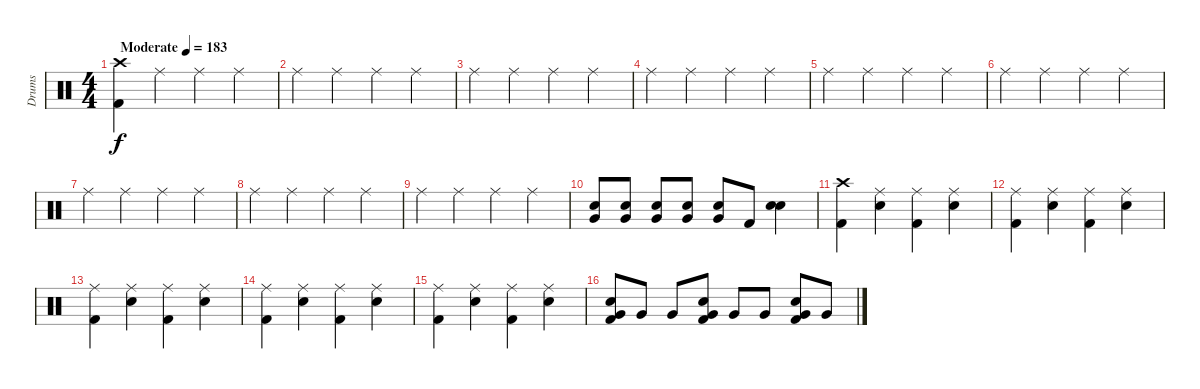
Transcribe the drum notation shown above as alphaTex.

\track ("Drums" "Drums") {instrument percussion}
\staff {score}
\articulation defaults
\ts (4 4)
\tempo (183 "Moderate")
\clef neutral
\ks c
("Crash high (hit)" "Kick (hit) 2").4{dy f} "Ride (middle)".4 "Ride (middle)".4 "Ride (middle)".4 |
"Ride (middle)".4 "Ride (middle)".4 "Ride (middle)".4 "Ride (middle)".4 |
"Ride (middle)".4 "Ride (middle)".4 "Ride (middle)".4 "Ride (middle)".4 |
"Ride (middle)".4 "Ride (middle)".4 "Ride (middle)".4 "Ride (middle)".4 |
"Ride (middle)".4 "Ride (middle)".4 "Ride (middle)".4 "Ride (middle)".4 |
"Ride (middle)".4 "Ride (middle)".4 "Ride (middle)".4 "Ride (middle)".4 |
"Ride (middle)".4 "Ride (middle)".4 "Ride (middle)".4 "Ride (middle)".4 |
"Ride (middle)".4 "Ride (middle)".4 "Ride (middle)".4 "Ride (middle)".4 |
"Ride (middle)".4 "Ride (middle)".4 "Ride (middle)".4 "Ride (middle)".4 |
("Very Low Tom (hit)" "Electric Snare (hit)").8 ("Very Low Tom (hit)" "Electric Snare (hit)").8 ("Very Low Tom (hit)" "Electric Snare (hit)").8 ("Very Low Tom (hit)" "Electric Snare (hit)").8 ("Very Low Tom (hit)" "Electric Snare (hit)").8 "Kick (hit) 2".8 ("Electric Snare (hit)" "Electric Snare (hit)").4 |
("Crash high (hit)" "Kick (hit) 2").4 ("Ride (middle)" "Electric Snare (hit)").4 ("Ride (middle)" "Kick (hit) 2").4 ("Ride (middle)" "Electric Snare (hit)").4 |
("Ride (middle)" "Kick (hit) 2").4 ("Ride (middle)" "Electric Snare (hit)").4 ("Ride (middle)" "Kick (hit) 2").4 ("Ride (middle)" "Electric Snare (hit)").4 |
("Ride (middle)" "Kick (hit) 2").4 ("Ride (middle)" "Electric Snare (hit)").4 ("Ride (middle)" "Kick (hit) 2").4 ("Ride (middle)" "Electric Snare (hit)").4 |
("Ride (middle)" "Kick (hit) 2").4 ("Ride (middle)" "Electric Snare (hit)").4 ("Ride (middle)" "Kick (hit) 2").4 ("Ride (middle)" "Electric Snare (hit)").4 |
("Ride (middle)" "Kick (hit) 2").4 ("Ride (middle)" "Electric Snare (hit)").4 ("Ride (middle)" "Kick (hit) 2").4 ("Ride (middle)" "Electric Snare (hit)").4 |
("Very Low Tom (hit)" "Electric Snare (hit)" "Kick (hit) 2").8 "Very Low Tom (hit)".8 "Very Low Tom (hit)".8 ("Very Low Tom (hit)" "Electric Snare (hit)" "Kick (hit) 2").8 "Very Low Tom (hit)".8 "Very Low Tom (hit)".8 ("Very Low Tom (hit)" "Electric Snare (hit)" "Kick (hit) 2").8 "Very Low Tom (hit)".8
